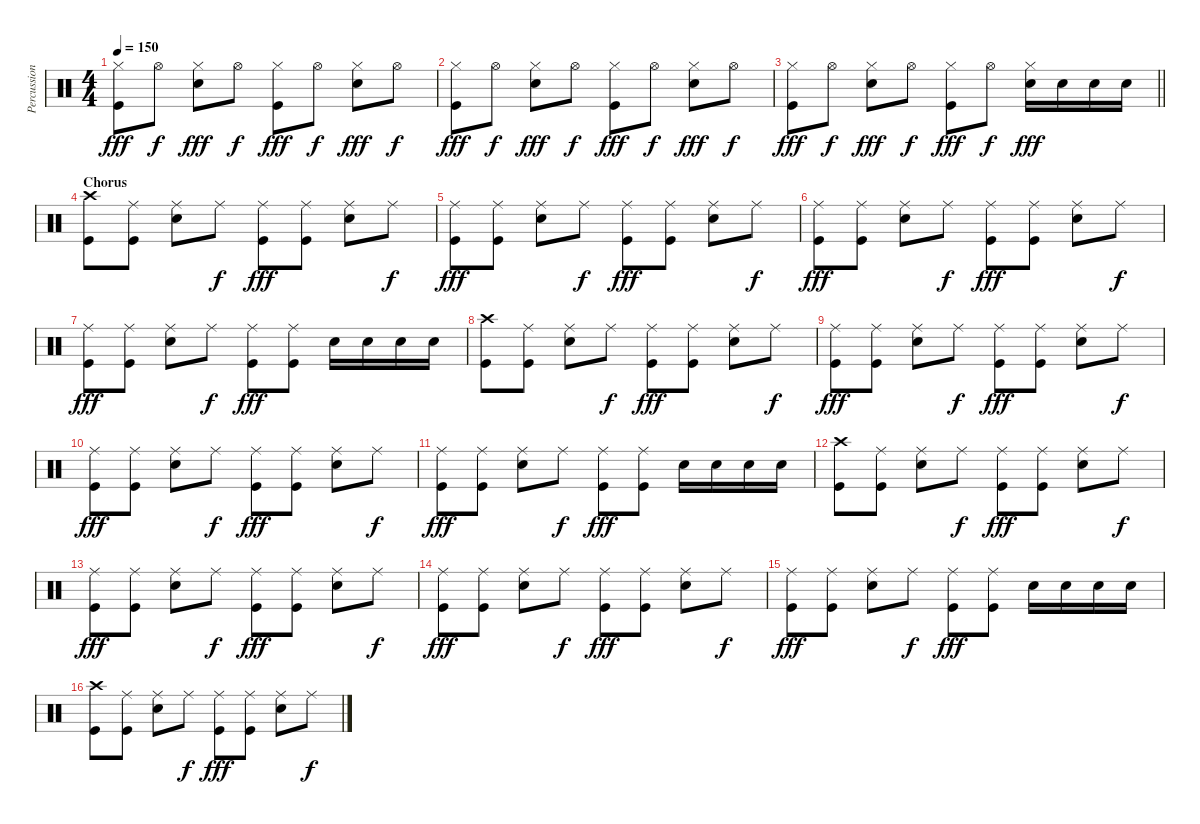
\track ("Percussion" "Percussion") {instrument percussion}
\staff {score}
\articulation defaults
\ts (4 4)
\tempo 150
\clef neutral
\ks c
("Hi-Hat (closed)" "Kick (hit)").8{dy fff} "Hi-Hat (open)".8{dy f} ("Hi-Hat (closed)" "Electric Snare (hit)").8{dy fff} "Hi-Hat (open)".8{dy f} ("Hi-Hat (closed)" "Kick (hit)").8{dy fff} "Hi-Hat (open)".8{dy f} ("Hi-Hat (closed)" "Electric Snare (hit)").8{dy fff} "Hi-Hat (open)".8{dy f} |
("Hi-Hat (closed)" "Kick (hit)").8{dy fff} "Hi-Hat (open)".8{dy f} ("Hi-Hat (closed)" "Electric Snare (hit)").8{dy fff} "Hi-Hat (open)".8{dy f} ("Hi-Hat (closed)" "Kick (hit)").8{dy fff} "Hi-Hat (open)".8{dy f} ("Hi-Hat (closed)" "Electric Snare (hit)").8{dy fff} "Hi-Hat (open)".8{dy f} |
\barLineRight lightlight
("Hi-Hat (closed)" "Kick (hit)").8{dy fff} "Hi-Hat (open)".8{dy f} ("Hi-Hat (closed)" "Electric Snare (hit)").8{dy fff} "Hi-Hat (open)".8{dy f} ("Hi-Hat (closed)" "Kick (hit)").8{dy fff} "Hi-Hat (open)".8{dy f} ("Hi-Hat (closed)" "Electric Snare (hit)").16{dy fff} "Electric Snare (hit)".16 "Electric Snare (hit)".16 "Electric Snare (hit)".16 |
\section ("" "Chorus")
("Crash high (hit)" "Kick (hit)").8 ("Ride (middle)" "Kick (hit)").8 ("Ride (middle)" "Electric Snare (hit)").8 "Ride (middle)".8{dy f} ("Ride (middle)" "Kick (hit)").8{dy fff} ("Ride (middle)" "Kick (hit)").8 ("Ride (middle)" "Electric Snare (hit)").8 "Ride (middle)".8{dy f} |
("Ride (middle)" "Kick (hit)").8{dy fff} ("Ride (middle)" "Kick (hit)").8 ("Ride (middle)" "Electric Snare (hit)").8 "Ride (middle)".8{dy f} ("Ride (middle)" "Kick (hit)").8{dy fff} ("Ride (middle)" "Kick (hit)").8 ("Ride (middle)" "Electric Snare (hit)").8 "Ride (middle)".8{dy f} |
("Ride (middle)" "Kick (hit)").8{dy fff} ("Ride (middle)" "Kick (hit)").8 ("Ride (middle)" "Electric Snare (hit)").8 "Ride (middle)".8{dy f} ("Ride (middle)" "Kick (hit)").8{dy fff} ("Ride (middle)" "Kick (hit)").8 ("Ride (middle)" "Electric Snare (hit)").8 "Ride (middle)".8{dy f} |
("Ride (middle)" "Kick (hit)").8{dy fff} ("Ride (middle)" "Kick (hit)").8 ("Ride (middle)" "Electric Snare (hit)").8 "Ride (middle)".8{dy f} ("Ride (middle)" "Kick (hit)").8{dy fff} ("Ride (middle)" "Kick (hit)").8 "Electric Snare (hit)".16 "Electric Snare (hit)".16 "Electric Snare (hit)".16 "Electric Snare (hit)".16 |
("Crash high (hit)" "Kick (hit)").8 ("Ride (middle)" "Kick (hit)").8 ("Ride (middle)" "Electric Snare (hit)").8 "Ride (middle)".8{dy f} ("Ride (middle)" "Kick (hit)").8{dy fff} ("Ride (middle)" "Kick (hit)").8 ("Ride (middle)" "Electric Snare (hit)").8 "Ride (middle)".8{dy f} |
("Ride (middle)" "Kick (hit)").8{dy fff} ("Ride (middle)" "Kick (hit)").8 ("Ride (middle)" "Electric Snare (hit)").8 "Ride (middle)".8{dy f} ("Ride (middle)" "Kick (hit)").8{dy fff} ("Ride (middle)" "Kick (hit)").8 ("Ride (middle)" "Electric Snare (hit)").8 "Ride (middle)".8{dy f} |
("Ride (middle)" "Kick (hit)").8{dy fff} ("Ride (middle)" "Kick (hit)").8 ("Ride (middle)" "Electric Snare (hit)").8 "Ride (middle)".8{dy f} ("Ride (middle)" "Kick (hit)").8{dy fff} ("Ride (middle)" "Kick (hit)").8 ("Ride (middle)" "Electric Snare (hit)").8 "Ride (middle)".8{dy f} |
("Ride (middle)" "Kick (hit)").8{dy fff} ("Ride (middle)" "Kick (hit)").8 ("Ride (middle)" "Electric Snare (hit)").8 "Ride (middle)".8{dy f} ("Ride (middle)" "Kick (hit)").8{dy fff} ("Ride (middle)" "Kick (hit)").8 "Electric Snare (hit)".16 "Electric Snare (hit)".16 "Electric Snare (hit)".16 "Electric Snare (hit)".16 |
("Crash high (hit)" "Kick (hit)").8 ("Ride (middle)" "Kick (hit)").8 ("Ride (middle)" "Electric Snare (hit)").8 "Ride (middle)".8{dy f} ("Ride (middle)" "Kick (hit)").8{dy fff} ("Ride (middle)" "Kick (hit)").8 ("Ride (middle)" "Electric Snare (hit)").8 "Ride (middle)".8{dy f} |
("Ride (middle)" "Kick (hit)").8{dy fff} ("Ride (middle)" "Kick (hit)").8 ("Ride (middle)" "Electric Snare (hit)").8 "Ride (middle)".8{dy f} ("Ride (middle)" "Kick (hit)").8{dy fff} ("Ride (middle)" "Kick (hit)").8 ("Ride (middle)" "Electric Snare (hit)").8 "Ride (middle)".8{dy f} |
("Ride (middle)" "Kick (hit)").8{dy fff} ("Ride (middle)" "Kick (hit)").8 ("Ride (middle)" "Electric Snare (hit)").8 "Ride (middle)".8{dy f} ("Ride (middle)" "Kick (hit)").8{dy fff} ("Ride (middle)" "Kick (hit)").8 ("Ride (middle)" "Electric Snare (hit)").8 "Ride (middle)".8{dy f} |
("Ride (middle)" "Kick (hit)").8{dy fff} ("Ride (middle)" "Kick (hit)").8 ("Ride (middle)" "Electric Snare (hit)").8 "Ride (middle)".8{dy f} ("Ride (middle)" "Kick (hit)").8{dy fff} ("Ride (middle)" "Kick (hit)").8 "Electric Snare (hit)".16 "Electric Snare (hit)".16 "Electric Snare (hit)".16 "Electric Snare (hit)".16 |
("Crash high (hit)" "Kick (hit)").8 ("Ride (middle)" "Kick (hit)").8 ("Ride (middle)" "Electric Snare (hit)").8 "Ride (middle)".8{dy f} ("Ride (middle)" "Kick (hit)").8{dy fff} ("Ride (middle)" "Kick (hit)").8 ("Ride (middle)" "Electric Snare (hit)").8 "Ride (middle)".8{dy f}
